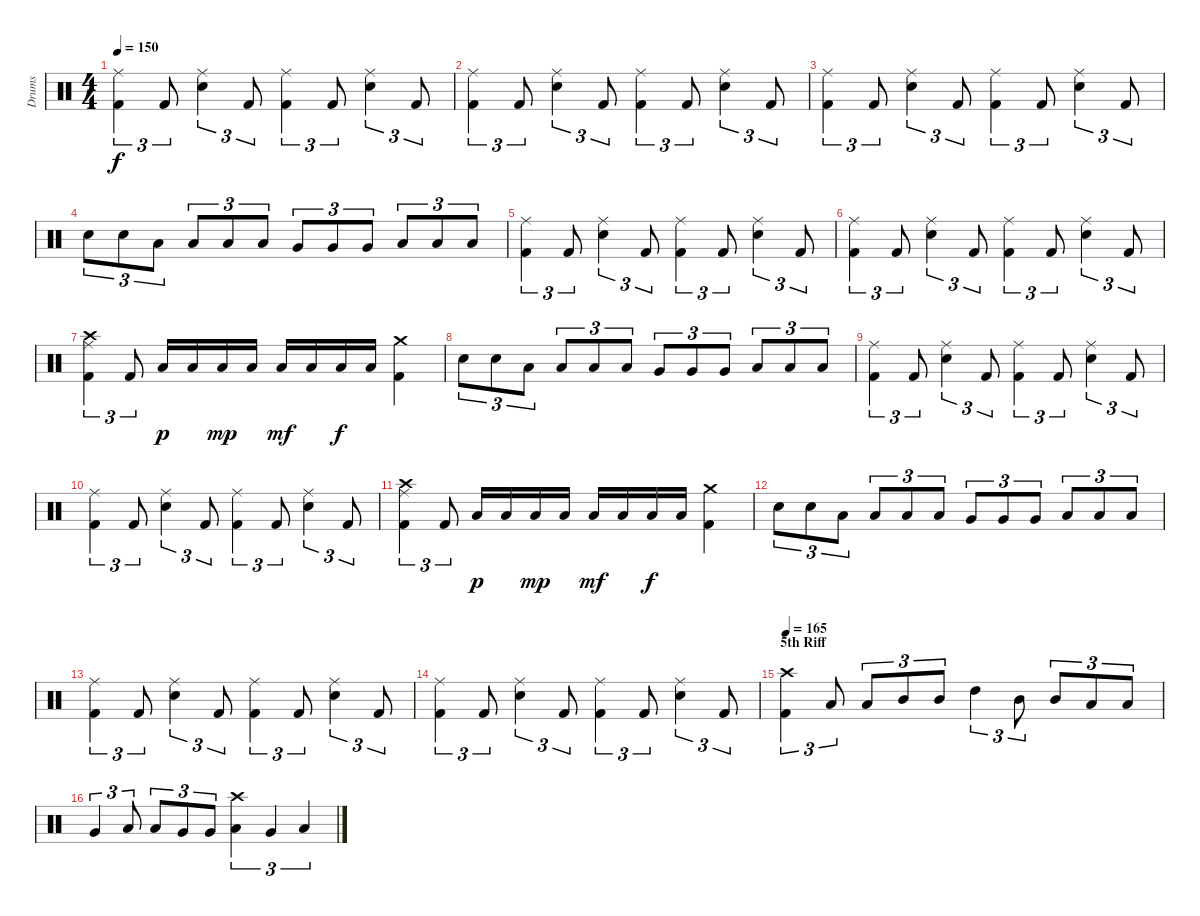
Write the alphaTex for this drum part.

\track ("Drums" "Drums") {instrument percussion}
\staff {score}
\articulation defaults
\ts (4 4)
\tempo 150
\clef neutral
\ks c
("Ride (middle)" "Kick (hit) 2").4{tu (3 2) dy f} "Kick (hit) 2".8{tu (3 2)} ("Ride (middle)" "Snare (hit) 2").4{tu (3 2)} "Kick (hit) 2".8{tu (3 2)} ("Ride (middle)" "Kick (hit) 2").4{tu (3 2)} "Kick (hit) 2".8{tu (3 2)} ("Ride (middle)" "Snare (hit) 2").4{tu (3 2)} "Kick (hit) 2".8{tu (3 2)} |
("Ride (middle)" "Kick (hit) 2").4{tu (3 2)} "Kick (hit) 2".8{tu (3 2)} ("Ride (middle)" "Snare (hit) 2").4{tu (3 2)} "Kick (hit) 2".8{tu (3 2)} ("Ride (middle)" "Kick (hit) 2").4{tu (3 2)} "Kick (hit) 2".8{tu (3 2)} ("Ride (middle)" "Snare (hit) 2").4{tu (3 2)} "Kick (hit) 2".8{tu (3 2)} |
("Ride (middle)" "Kick (hit) 2").4{tu (3 2)} "Kick (hit) 2".8{tu (3 2)} ("Ride (middle)" "Snare (hit) 2").4{tu (3 2)} "Kick (hit) 2".8{tu (3 2)} ("Ride (middle)" "Kick (hit) 2").4{tu (3 2)} "Kick (hit) 2".8{tu (3 2)} ("Ride (middle)" "Snare (hit) 2").4{tu (3 2)} "Kick (hit) 2".8{tu (3 2)} |
"Snare (hit) 2".8{tu (3 2)} "Snare (hit) 2".8{tu (3 2)} "Low Tom (hit)".8{tu (3 2)} "Low Tom (hit)".8{tu (3 2)} "Low Tom (hit)".8{tu (3 2)} "Low Tom (hit)".8{tu (3 2)} "Very Low Tom (hit)".8{tu (3 2)} "Very Low Tom (hit)".8{tu (3 2)} "Very Low Tom (hit)".8{tu (3 2)} "Low Tom (hit)".8{tu (3 2)} "Low Tom (hit)".8{tu (3 2)} "Low Tom (hit)".8{tu (3 2)} |
("Ride (middle)" "Kick (hit) 2").4{tu (3 2)} "Kick (hit) 2".8{tu (3 2)} ("Ride (middle)" "Snare (hit) 2").4{tu (3 2)} "Kick (hit) 2".8{tu (3 2)} ("Ride (middle)" "Kick (hit) 2").4{tu (3 2)} "Kick (hit) 2".8{tu (3 2)} ("Ride (middle)" "Snare (hit) 2").4{tu (3 2)} "Kick (hit) 2".8{tu (3 2)} |
("Ride (middle)" "Kick (hit) 2").4{tu (3 2)} "Kick (hit) 2".8{tu (3 2)} ("Ride (middle)" "Snare (hit) 2").4{tu (3 2)} "Kick (hit) 2".8{tu (3 2)} ("Ride (middle)" "Kick (hit) 2").4{tu (3 2)} "Kick (hit) 2".8{tu (3 2)} ("Ride (middle)" "Snare (hit) 2").4{tu (3 2)} "Kick (hit) 2".8{tu (3 2)} |
("Ride (middle)" "Kick (hit) 2" "Crash high (hit)").4{tu (3 2)} "Kick (hit) 2".8{tu (3 2)} "Low Tom (hit)".16{dy p} "Low Tom (hit)".16 "Low Tom (hit)".16{dy mp} "Low Tom (hit)".16 "Low Tom (hit)".16{dy mf} "Low Tom (hit)".16 "Low Tom (hit)".16{dy f} "Low Tom (hit)".16 ("Kick (hit) 2" "Crash medium (hit)").4 |
"Snare (hit) 2".8{tu (3 2)} "Snare (hit) 2".8{tu (3 2)} "Low Tom (hit)".8{tu (3 2)} "Low Tom (hit)".8{tu (3 2)} "Low Tom (hit)".8{tu (3 2)} "Low Tom (hit)".8{tu (3 2)} "Very Low Tom (hit)".8{tu (3 2)} "Very Low Tom (hit)".8{tu (3 2)} "Very Low Tom (hit)".8{tu (3 2)} "Low Tom (hit)".8{tu (3 2)} "Low Tom (hit)".8{tu (3 2)} "Low Tom (hit)".8{tu (3 2)} |
("Ride (middle)" "Kick (hit) 2").4{tu (3 2)} "Kick (hit) 2".8{tu (3 2)} ("Ride (middle)" "Snare (hit) 2").4{tu (3 2)} "Kick (hit) 2".8{tu (3 2)} ("Ride (middle)" "Kick (hit) 2").4{tu (3 2)} "Kick (hit) 2".8{tu (3 2)} ("Ride (middle)" "Snare (hit) 2").4{tu (3 2)} "Kick (hit) 2".8{tu (3 2)} |
("Ride (middle)" "Kick (hit) 2").4{tu (3 2)} "Kick (hit) 2".8{tu (3 2)} ("Ride (middle)" "Snare (hit) 2").4{tu (3 2)} "Kick (hit) 2".8{tu (3 2)} ("Ride (middle)" "Kick (hit) 2").4{tu (3 2)} "Kick (hit) 2".8{tu (3 2)} ("Ride (middle)" "Snare (hit) 2").4{tu (3 2)} "Kick (hit) 2".8{tu (3 2)} |
("Ride (middle)" "Kick (hit) 2" "Crash high (hit)").4{tu (3 2)} "Kick (hit) 2".8{tu (3 2)} "Low Tom (hit)".16{dy p} "Low Tom (hit)".16 "Low Tom (hit)".16{dy mp} "Low Tom (hit)".16 "Low Tom (hit)".16{dy mf} "Low Tom (hit)".16 "Low Tom (hit)".16{dy f} "Low Tom (hit)".16 ("Kick (hit) 2" "Crash medium (hit)").4 |
"Snare (hit) 2".8{tu (3 2)} "Snare (hit) 2".8{tu (3 2)} "Low Tom (hit)".8{tu (3 2)} "Low Tom (hit)".8{tu (3 2)} "Low Tom (hit)".8{tu (3 2)} "Low Tom (hit)".8{tu (3 2)} "Very Low Tom (hit)".8{tu (3 2)} "Very Low Tom (hit)".8{tu (3 2)} "Very Low Tom (hit)".8{tu (3 2)} "Low Tom (hit)".8{tu (3 2)} "Low Tom (hit)".8{tu (3 2)} "Low Tom (hit)".8{tu (3 2)} |
("Ride (middle)" "Kick (hit) 2").4{tu (3 2)} "Kick (hit) 2".8{tu (3 2)} ("Ride (middle)" "Snare (hit) 2").4{tu (3 2)} "Kick (hit) 2".8{tu (3 2)} ("Ride (middle)" "Kick (hit) 2").4{tu (3 2)} "Kick (hit) 2".8{tu (3 2)} ("Ride (middle)" "Snare (hit) 2").4{tu (3 2)} "Kick (hit) 2".8{tu (3 2)} |
("Ride (middle)" "Kick (hit) 2").4{tu (3 2)} "Kick (hit) 2".8{tu (3 2)} ("Ride (middle)" "Snare (hit) 2").4{tu (3 2)} "Kick (hit) 2".8{tu (3 2)} ("Ride (middle)" "Kick (hit) 2").4{tu (3 2)} "Kick (hit) 2".8{tu (3 2)} ("Ride (middle)" "Snare (hit) 2").4{tu (3 2)} "Kick (hit) 2".8{tu (3 2)} |
\section ("" "5th Riff")
\tempo 165
("Kick (hit) 2" "Crash high (hit)").4{tu (3 2)} "Low Tom (hit)".8{tu (3 2)} "Low Tom (hit)".8{tu (3 2)} "Mid Tom (hit)".8{tu (3 2)} "Mid Tom (hit)".8{tu (3 2)} "High Tom (hit)".4{tu (3 2)} "Mid Tom (hit)".8{tu (3 2)} "Mid Tom (hit)".8{tu (3 2)} "Low Tom (hit)".8{tu (3 2)} "Low Tom (hit)".8{tu (3 2)} |
"Very Low Tom (hit)".4{tu (3 2)} "Low Tom (hit)".8{tu (3 2)} "Low Tom (hit)".8{tu (3 2)} "Very Low Tom (hit)".8{tu (3 2)} "Very Low Tom (hit)".8{tu (3 2)} ("Low Floor Tom (hit)" "Crash high (hit)").4{tu (3 2)} "Very Low Tom (hit)".4{tu (3 2)} "Low Tom (hit)".4{tu (3 2)}
